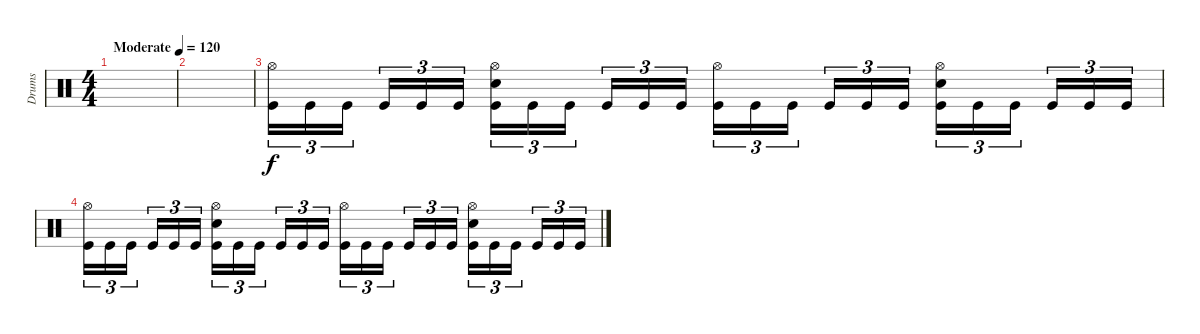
\track ("Drums" "Drums") {instrument percussion}
\staff {score}
\articulation defaults
\ts (4 4)
\tempo (120 "Moderate")
\clef neutral
\ks c
|
|
("Hi-Hat (open)" "Kick (hit)").16{tu (3 2)} "Kick (hit)".16{tu (3 2)} "Kick (hit)".16{tu (3 2) beam splitsecondary} "Kick (hit)".16{tu (3 2)} "Kick (hit)".16{tu (3 2)} "Kick (hit)".16{tu (3 2)} ("Hi-Hat (open)" "Snare (hit) 2" "Kick (hit)").16{tu (3 2)} "Kick (hit)".16{tu (3 2)} "Kick (hit)".16{tu (3 2) beam splitsecondary} "Kick (hit)".16{tu (3 2)} "Kick (hit)".16{tu (3 2)} "Kick (hit)".16{tu (3 2)} ("Hi-Hat (open)" "Kick (hit)").16{tu (3 2)} "Kick (hit)".16{tu (3 2)} "Kick (hit)".16{tu (3 2) beam splitsecondary} "Kick (hit)".16{tu (3 2)} "Kick (hit)".16{tu (3 2)} "Kick (hit)".16{tu (3 2)} ("Hi-Hat (open)" "Snare (hit) 2" "Kick (hit)").16{tu (3 2)} "Kick (hit)".16{tu (3 2)} "Kick (hit)".16{tu (3 2) beam splitsecondary} "Kick (hit)".16{tu (3 2)} "Kick (hit)".16{tu (3 2)} "Kick (hit)".16{tu (3 2)} |
("Hi-Hat (open)" "Kick (hit)").16{tu (3 2)} "Kick (hit)".16{tu (3 2)} "Kick (hit)".16{tu (3 2) beam splitsecondary} "Kick (hit)".16{tu (3 2)} "Kick (hit)".16{tu (3 2)} "Kick (hit)".16{tu (3 2)} ("Hi-Hat (open)" "Snare (hit) 2" "Kick (hit)").16{tu (3 2)} "Kick (hit)".16{tu (3 2)} "Kick (hit)".16{tu (3 2) beam splitsecondary} "Kick (hit)".16{tu (3 2)} "Kick (hit)".16{tu (3 2)} "Kick (hit)".16{tu (3 2)} ("Hi-Hat (open)" "Kick (hit)").16{tu (3 2)} "Kick (hit)".16{tu (3 2)} "Kick (hit)".16{tu (3 2) beam splitsecondary} "Kick (hit)".16{tu (3 2)} "Kick (hit)".16{tu (3 2)} "Kick (hit)".16{tu (3 2)} ("Hi-Hat (open)" "Snare (hit) 2" "Kick (hit)").16{tu (3 2)} "Kick (hit)".16{tu (3 2)} "Kick (hit)".16{tu (3 2) beam splitsecondary} "Kick (hit)".16{tu (3 2)} "Kick (hit)".16{tu (3 2)} "Kick (hit)".16{tu (3 2)}
